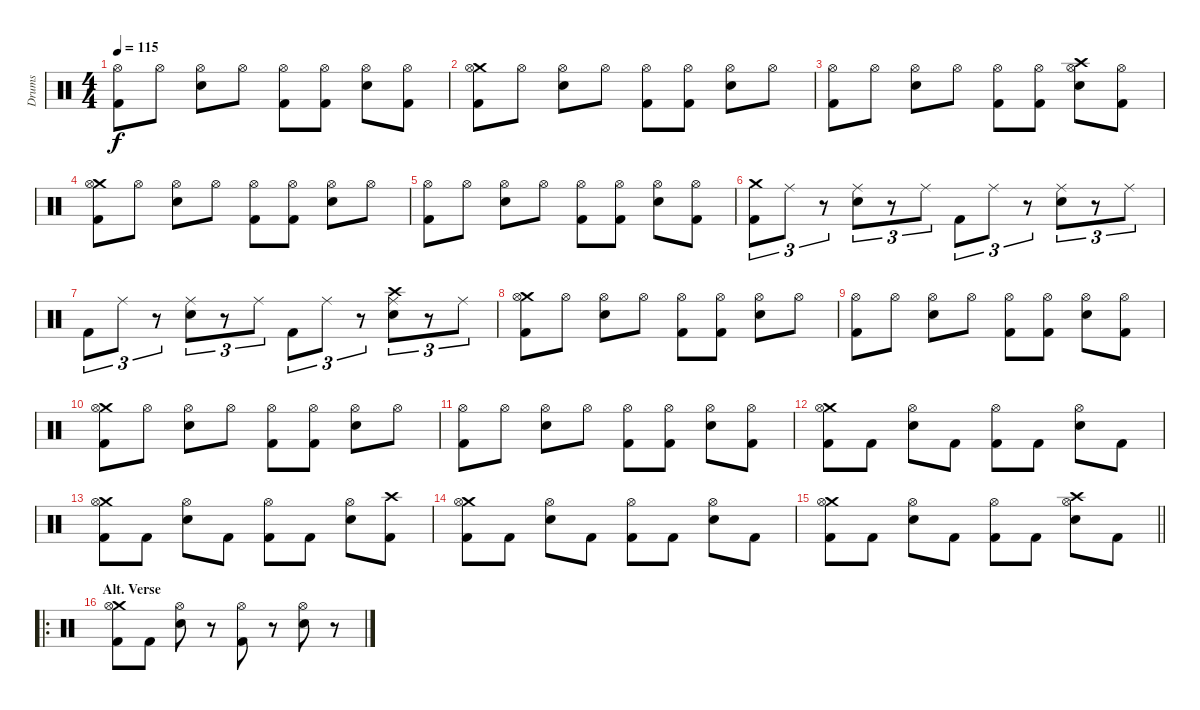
\track ("Drums" "Drums") {instrument percussion}
\staff {score}
\articulation defaults
\ts (4 4)
\tempo 115
\clef neutral
\ks c
("Hi-Hat (open)" "Kick (hit) 2").8{dy f} "Hi-Hat (open)".8 ("Hi-Hat (open)" "Snare (hit) 2").8 "Hi-Hat (open)".8 ("Hi-Hat (open)" "Kick (hit) 2").8 ("Hi-Hat (open)" "Kick (hit) 2").8 ("Hi-Hat (open)" "Snare (hit) 2").8 ("Hi-Hat (open)" "Kick (hit) 2").8 |
("Crash medium (hit)" "Hi-Hat (open)" "Kick (hit) 2").8 "Hi-Hat (open)".8 ("Hi-Hat (open)" "Snare (hit) 2").8 "Hi-Hat (open)".8 ("Hi-Hat (open)" "Kick (hit) 2").8 ("Hi-Hat (open)" "Kick (hit) 2").8 ("Hi-Hat (open)" "Snare (hit) 2").8 "Hi-Hat (open)".8 |
("Hi-Hat (open)" "Kick (hit) 2").8 "Hi-Hat (open)".8 ("Hi-Hat (open)" "Snare (hit) 2").8 "Hi-Hat (open)".8 ("Hi-Hat (open)" "Kick (hit) 2").8 ("Hi-Hat (open)" "Kick (hit) 2").8 ("Crash high (hit)" "Hi-Hat (open)" "Snare (hit) 2").8 ("Hi-Hat (open)" "Kick (hit) 2").8 |
("Crash medium (hit)" "Hi-Hat (open)" "Kick (hit) 2").8 "Hi-Hat (open)".8 ("Hi-Hat (open)" "Snare (hit) 2").8 "Hi-Hat (open)".8 ("Hi-Hat (open)" "Kick (hit) 2").8 ("Hi-Hat (open)" "Kick (hit) 2").8 ("Hi-Hat (open)" "Snare (hit) 2").8 "Hi-Hat (open)".8 |
("Hi-Hat (open)" "Kick (hit) 2").8 "Hi-Hat (open)".8 ("Hi-Hat (open)" "Snare (hit) 2").8 "Hi-Hat (open)".8 ("Hi-Hat (open)" "Kick (hit) 2").8 ("Hi-Hat (open)" "Kick (hit) 2").8 ("Hi-Hat (open)" "Snare (hit) 2").8 ("Hi-Hat (open)" "Kick (hit) 2").8 |
("Crash medium (hit)" "Kick (hit) 2").8{tu (3 2)} "Ride (middle)".8{tu (3 2)} r.8{tu (3 2)} ("Ride (middle)" "Snare (hit) 2").8{tu (3 2)} r.8{tu (3 2)} "Ride (middle)".8{tu (3 2)} "Kick (hit) 2".8{tu (3 2)} "Ride (middle)".8{tu (3 2)} r.8{tu (3 2)} ("Ride (middle)" "Snare (hit) 2").8{tu (3 2)} r.8{tu (3 2)} "Ride (middle)".8{tu (3 2)} |
"Kick (hit) 2".8{tu (3 2)} "Ride (middle)".8{tu (3 2)} r.8{tu (3 2)} ("Ride (middle)" "Snare (hit) 2").8{tu (3 2)} r.8{tu (3 2)} "Ride (middle)".8{tu (3 2)} "Kick (hit) 2".8{tu (3 2)} "Ride (middle)".8{tu (3 2)} r.8{tu (3 2)} ("Crash high (hit)" "Ride (middle)" "Snare (hit) 2").8{tu (3 2)} r.8{tu (3 2)} "Ride (middle)".8{tu (3 2)} |
("Crash medium (hit)" "Hi-Hat (open)" "Kick (hit) 2").8 "Hi-Hat (open)".8 ("Hi-Hat (open)" "Snare (hit) 2").8 "Hi-Hat (open)".8 ("Hi-Hat (open)" "Kick (hit) 2").8 ("Hi-Hat (open)" "Kick (hit) 2").8 ("Hi-Hat (open)" "Snare (hit) 2").8 "Hi-Hat (open)".8 |
("Hi-Hat (open)" "Kick (hit) 2").8 "Hi-Hat (open)".8 ("Hi-Hat (open)" "Snare (hit) 2").8 "Hi-Hat (open)".8 ("Hi-Hat (open)" "Kick (hit) 2").8 ("Hi-Hat (open)" "Kick (hit) 2").8 ("Hi-Hat (open)" "Snare (hit) 2").8 ("Hi-Hat (open)" "Kick (hit) 2").8 |
("Crash medium (hit)" "Hi-Hat (open)" "Kick (hit) 2").8 "Hi-Hat (open)".8 ("Hi-Hat (open)" "Snare (hit) 2").8 "Hi-Hat (open)".8 ("Hi-Hat (open)" "Kick (hit) 2").8 ("Hi-Hat (open)" "Kick (hit) 2").8 ("Hi-Hat (open)" "Snare (hit) 2").8 "Hi-Hat (open)".8 |
("Hi-Hat (open)" "Kick (hit) 2").8 "Hi-Hat (open)".8 ("Hi-Hat (open)" "Snare (hit) 2").8 "Hi-Hat (open)".8 ("Hi-Hat (open)" "Kick (hit) 2").8 ("Hi-Hat (open)" "Kick (hit) 2").8 ("Hi-Hat (open)" "Snare (hit) 2").8 ("Hi-Hat (open)" "Kick (hit) 2").8 |
("Crash medium (hit)" "Hi-Hat (open)" "Kick (hit) 2").8 "Kick (hit) 2".8 ("Hi-Hat (open)" "Snare (hit) 2").8 "Kick (hit) 2".8 ("Hi-Hat (open)" "Kick (hit) 2").8 "Kick (hit) 2".8 ("Hi-Hat (open)" "Snare (hit) 2").8 "Kick (hit) 2".8 |
("Crash medium (hit)" "Hi-Hat (open)" "Kick (hit) 2").8 "Kick (hit) 2".8 ("Hi-Hat (open)" "Snare (hit) 2").8 "Kick (hit) 2".8 ("Hi-Hat (open)" "Kick (hit) 2").8 "Kick (hit) 2".8 ("Hi-Hat (open)" "Snare (hit) 2").8 ("Crash high (hit)" "Kick (hit) 2").8 |
("Crash medium (hit)" "Hi-Hat (open)" "Kick (hit) 2").8 "Kick (hit) 2".8 ("Hi-Hat (open)" "Snare (hit) 2").8 "Kick (hit) 2".8 ("Hi-Hat (open)" "Kick (hit) 2").8 "Kick (hit) 2".8 ("Hi-Hat (open)" "Snare (hit) 2").8 "Kick (hit) 2".8 |
\barLineRight lightlight
("Crash medium (hit)" "Hi-Hat (open)" "Kick (hit) 2").8 "Kick (hit) 2".8 ("Hi-Hat (open)" "Snare (hit) 2").8 "Kick (hit) 2".8 ("Hi-Hat (open)" "Kick (hit) 2").8 "Kick (hit) 2".8 ("Crash high (hit)" "Hi-Hat (open)" "Snare (hit) 2").8 "Kick (hit) 2".8 |
\ro
\section ("" "Alt. Verse")
("Crash medium (hit)" "Hi-Hat (open)" "Kick (hit) 2").8 "Kick (hit) 2".8 ("Hi-Hat (open)" "Snare (hit) 2").8 r.8 ("Hi-Hat (open)" "Kick (hit) 2").8 r.8 ("Hi-Hat (open)" "Snare (hit) 2").8 r.8
